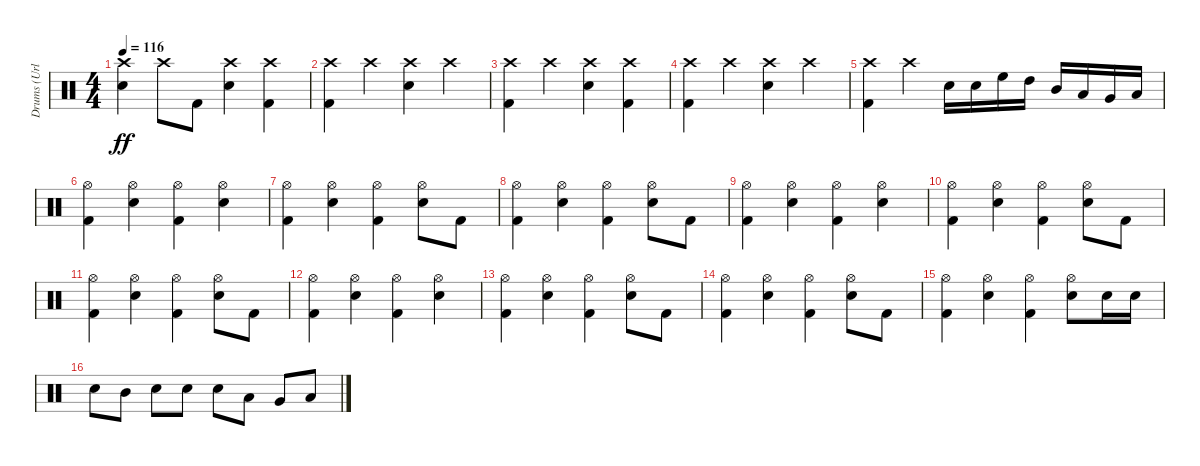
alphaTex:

\track ("Drums (Urlich)" "Drums (Url") {instrument percussion}
\staff {score}
\articulation defaults
\ts (4 4)
\tempo 116
\clef neutral
\ks c
("Snare (hit) 2" "Crash high (hit)").4{dy ff} "Crash high (hit)".8 "Kick (hit) 2".8 ("Snare (hit) 2" "Crash high (hit)").4 ("Kick (hit) 2" "Crash high (hit)").4 |
("Kick (hit) 2" "Crash high (hit)").4 "Crash high (hit)".4 ("Snare (hit) 2" "Crash high (hit)").4 "Crash high (hit)".4 |
("Kick (hit) 2" "Crash high (hit)").4 "Crash high (hit)".4 ("Snare (hit) 2" "Crash high (hit)").4 ("Kick (hit) 2" "Crash high (hit)").4 |
("Kick (hit) 2" "Crash high (hit)").4 "Crash high (hit)".4 ("Snare (hit) 2" "Crash high (hit)").4 "Crash high (hit)".4 |
("Kick (hit) 2" "Crash high (hit)").4 "Crash high (hit)".4 "Snare (hit) 2".16 "Snare (hit) 2".16 "High Floor Tom (hit)".16 "High Tom (hit)".16 "Mid Tom (hit)".16 "Low Tom (hit)".16 "Very Low Tom (hit)".16 "Low Floor Tom (hit)".16 |
("Kick (hit) 2" "Hi-Hat (open)").4 ("Snare (hit) 2" "Hi-Hat (open)").4 ("Kick (hit) 2" "Hi-Hat (open)").4 ("Snare (hit) 2" "Hi-Hat (open)").4 |
("Kick (hit) 2" "Hi-Hat (open)").4 ("Snare (hit) 2" "Hi-Hat (open)").4 ("Kick (hit) 2" "Hi-Hat (open)").4 ("Snare (hit) 2" "Hi-Hat (open)").8 "Kick (hit) 2".8 |
("Kick (hit) 2" "Hi-Hat (open)").4 ("Snare (hit) 2" "Hi-Hat (open)").4 ("Kick (hit) 2" "Hi-Hat (open)").4 ("Snare (hit) 2" "Hi-Hat (open)").8 "Kick (hit) 2".8 |
("Kick (hit) 2" "Hi-Hat (open)").4 ("Snare (hit) 2" "Hi-Hat (open)").4 ("Kick (hit) 2" "Hi-Hat (open)").4 ("Snare (hit) 2" "Hi-Hat (open)").4 |
("Kick (hit) 2" "Hi-Hat (open)").4 ("Snare (hit) 2" "Hi-Hat (open)").4 ("Kick (hit) 2" "Hi-Hat (open)").4 ("Snare (hit) 2" "Hi-Hat (open)").8 "Kick (hit) 2".8 |
("Kick (hit) 2" "Hi-Hat (open)").4 ("Snare (hit) 2" "Hi-Hat (open)").4 ("Kick (hit) 2" "Hi-Hat (open)").4 ("Snare (hit) 2" "Hi-Hat (open)").8 "Kick (hit) 2".8 |
("Kick (hit) 2" "Hi-Hat (open)").4 ("Snare (hit) 2" "Hi-Hat (open)").4 ("Kick (hit) 2" "Hi-Hat (open)").4 ("Snare (hit) 2" "Hi-Hat (open)").4 |
("Kick (hit) 2" "Hi-Hat (open)").4 ("Snare (hit) 2" "Hi-Hat (open)").4 ("Kick (hit) 2" "Hi-Hat (open)").4 ("Snare (hit) 2" "Hi-Hat (open)").8 "Kick (hit) 2".8 |
("Kick (hit) 2" "Hi-Hat (open)").4 ("Snare (hit) 2" "Hi-Hat (open)").4 ("Kick (hit) 2" "Hi-Hat (open)").4 ("Snare (hit) 2" "Hi-Hat (open)").8 "Kick (hit) 2".8 |
("Kick (hit) 2" "Hi-Hat (open)").4 ("Snare (hit) 2" "Hi-Hat (open)").4 ("Kick (hit) 2" "Hi-Hat (open)").4 ("Snare (hit) 2" "Hi-Hat (open)").8 "Snare (hit) 2".16 "Snare (hit) 2".16 |
"Snare (hit) 2".8 "Mid Tom (hit)".8 "Snare (hit) 2".8 "Snare (hit) 2".8 "Snare (hit) 2".8 "Low Tom (hit)".8 "Very Low Tom (hit)".8 "Low Floor Tom (hit)".8
